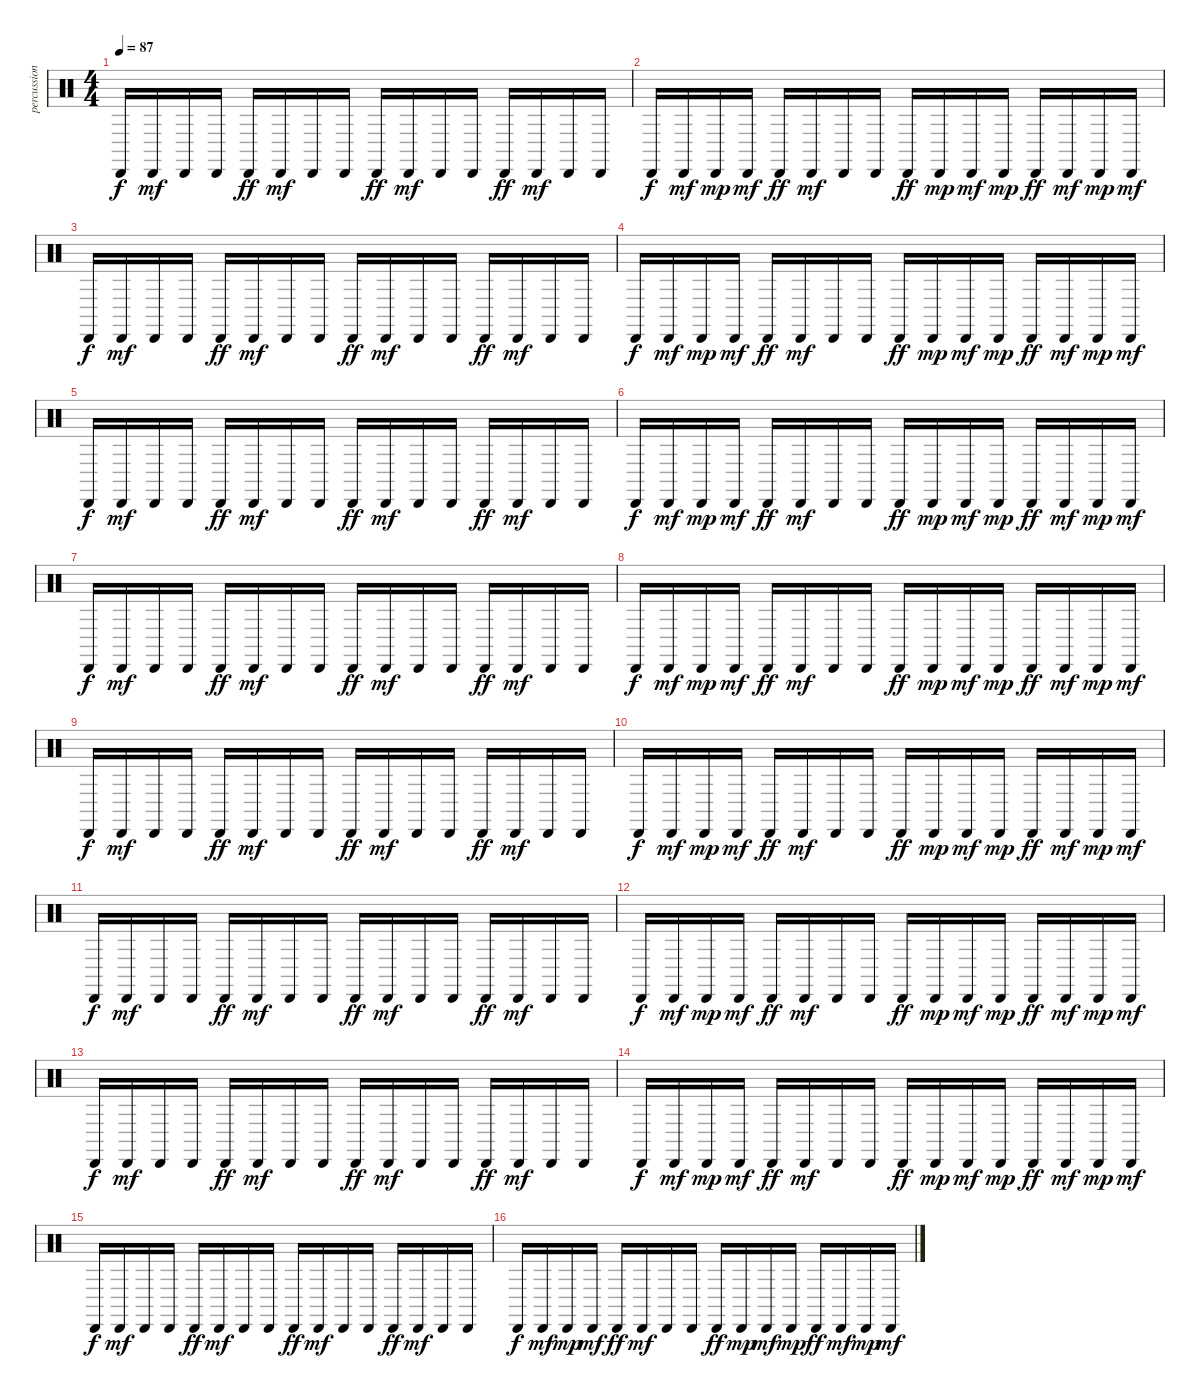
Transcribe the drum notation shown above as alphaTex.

\track ("percussion" "percussion") {instrument percussion}
\staff {score}
\articulation defaults
\ts (4 4)
\tempo 87
\clef neutral
\ks c "Cabasa (hit)".16{dy f} "Cabasa (hit)".16{dy mf} "Cabasa (hit)".16 "Cabasa (hit)".16 "Cabasa (hit)".16{dy ff} "Cabasa (hit)".16{dy mf} "Cabasa (hit)".16 "Cabasa (hit)".16 "Cabasa (hit)".16{dy ff} "Cabasa (hit)".16{dy mf} "Cabasa (hit)".16 "Cabasa (hit)".16 "Cabasa (hit)".16{dy ff} "Cabasa (hit)".16{dy mf} "Cabasa (hit)".16 "Cabasa (hit)".16
|
"Cabasa (hit)".16{dy f} "Cabasa (hit)".16{dy mf} "Cabasa (hit)".16{dy mp} "Cabasa (hit)".16{dy mf} "Cabasa (hit)".16{dy ff} "Cabasa (hit)".16{dy mf} "Cabasa (hit)".16 "Cabasa (hit)".16 "Cabasa (hit)".16{dy ff} "Cabasa (hit)".16{dy mp} "Cabasa (hit)".16{dy mf} "Cabasa (hit)".16{dy mp} "Cabasa (hit)".16{dy ff} "Cabasa (hit)".16{dy mf} "Cabasa (hit)".16{dy mp} "Cabasa (hit)".16{dy mf} |
"Cabasa (hit)".16{dy f} "Cabasa (hit)".16{dy mf} "Cabasa (hit)".16 "Cabasa (hit)".16 "Cabasa (hit)".16{dy ff} "Cabasa (hit)".16{dy mf} "Cabasa (hit)".16 "Cabasa (hit)".16 "Cabasa (hit)".16{dy ff} "Cabasa (hit)".16{dy mf} "Cabasa (hit)".16 "Cabasa (hit)".16 "Cabasa (hit)".16{dy ff} "Cabasa (hit)".16{dy mf} "Cabasa (hit)".16 "Cabasa (hit)".16 |
"Cabasa (hit)".16{dy f} "Cabasa (hit)".16{dy mf} "Cabasa (hit)".16{dy mp} "Cabasa (hit)".16{dy mf} "Cabasa (hit)".16{dy ff} "Cabasa (hit)".16{dy mf} "Cabasa (hit)".16 "Cabasa (hit)".16 "Cabasa (hit)".16{dy ff} "Cabasa (hit)".16{dy mp} "Cabasa (hit)".16{dy mf} "Cabasa (hit)".16{dy mp} "Cabasa (hit)".16{dy ff} "Cabasa (hit)".16{dy mf} "Cabasa (hit)".16{dy mp} "Cabasa (hit)".16{dy mf} |
"Cabasa (hit)".16{dy f} "Cabasa (hit)".16{dy mf} "Cabasa (hit)".16 "Cabasa (hit)".16 "Cabasa (hit)".16{dy ff} "Cabasa (hit)".16{dy mf} "Cabasa (hit)".16 "Cabasa (hit)".16 "Cabasa (hit)".16{dy ff} "Cabasa (hit)".16{dy mf} "Cabasa (hit)".16 "Cabasa (hit)".16 "Cabasa (hit)".16{dy ff} "Cabasa (hit)".16{dy mf} "Cabasa (hit)".16 "Cabasa (hit)".16 |
"Cabasa (hit)".16{dy f} "Cabasa (hit)".16{dy mf} "Cabasa (hit)".16{dy mp} "Cabasa (hit)".16{dy mf} "Cabasa (hit)".16{dy ff} "Cabasa (hit)".16{dy mf} "Cabasa (hit)".16 "Cabasa (hit)".16 "Cabasa (hit)".16{dy ff} "Cabasa (hit)".16{dy mp} "Cabasa (hit)".16{dy mf} "Cabasa (hit)".16{dy mp} "Cabasa (hit)".16{dy ff} "Cabasa (hit)".16{dy mf} "Cabasa (hit)".16{dy mp} "Cabasa (hit)".16{dy mf} |
"Cabasa (hit)".16{dy f} "Cabasa (hit)".16{dy mf} "Cabasa (hit)".16 "Cabasa (hit)".16 "Cabasa (hit)".16{dy ff} "Cabasa (hit)".16{dy mf} "Cabasa (hit)".16 "Cabasa (hit)".16 "Cabasa (hit)".16{dy ff} "Cabasa (hit)".16{dy mf} "Cabasa (hit)".16 "Cabasa (hit)".16 "Cabasa (hit)".16{dy ff} "Cabasa (hit)".16{dy mf} "Cabasa (hit)".16 "Cabasa (hit)".16 |
"Cabasa (hit)".16{dy f} "Cabasa (hit)".16{dy mf} "Cabasa (hit)".16{dy mp} "Cabasa (hit)".16{dy mf} "Cabasa (hit)".16{dy ff} "Cabasa (hit)".16{dy mf} "Cabasa (hit)".16 "Cabasa (hit)".16 "Cabasa (hit)".16{dy ff} "Cabasa (hit)".16{dy mp} "Cabasa (hit)".16{dy mf} "Cabasa (hit)".16{dy mp} "Cabasa (hit)".16{dy ff} "Cabasa (hit)".16{dy mf} "Cabasa (hit)".16{dy mp} "Cabasa (hit)".16{dy mf} |
"Cabasa (hit)".16{dy f} "Cabasa (hit)".16{dy mf} "Cabasa (hit)".16 "Cabasa (hit)".16 "Cabasa (hit)".16{dy ff} "Cabasa (hit)".16{dy mf} "Cabasa (hit)".16 "Cabasa (hit)".16 "Cabasa (hit)".16{dy ff} "Cabasa (hit)".16{dy mf} "Cabasa (hit)".16 "Cabasa (hit)".16 "Cabasa (hit)".16{dy ff} "Cabasa (hit)".16{dy mf} "Cabasa (hit)".16 "Cabasa (hit)".16 |
"Cabasa (hit)".16{dy f} "Cabasa (hit)".16{dy mf} "Cabasa (hit)".16{dy mp} "Cabasa (hit)".16{dy mf} "Cabasa (hit)".16{dy ff} "Cabasa (hit)".16{dy mf} "Cabasa (hit)".16 "Cabasa (hit)".16 "Cabasa (hit)".16{dy ff} "Cabasa (hit)".16{dy mp} "Cabasa (hit)".16{dy mf} "Cabasa (hit)".16{dy mp} "Cabasa (hit)".16{dy ff} "Cabasa (hit)".16{dy mf} "Cabasa (hit)".16{dy mp} "Cabasa (hit)".16{dy mf} |
"Cabasa (hit)".16{dy f} "Cabasa (hit)".16{dy mf} "Cabasa (hit)".16 "Cabasa (hit)".16 "Cabasa (hit)".16{dy ff} "Cabasa (hit)".16{dy mf} "Cabasa (hit)".16 "Cabasa (hit)".16 "Cabasa (hit)".16{dy ff} "Cabasa (hit)".16{dy mf} "Cabasa (hit)".16 "Cabasa (hit)".16 "Cabasa (hit)".16{dy ff} "Cabasa (hit)".16{dy mf} "Cabasa (hit)".16 "Cabasa (hit)".16 |
"Cabasa (hit)".16{dy f} "Cabasa (hit)".16{dy mf} "Cabasa (hit)".16{dy mp} "Cabasa (hit)".16{dy mf} "Cabasa (hit)".16{dy ff} "Cabasa (hit)".16{dy mf} "Cabasa (hit)".16 "Cabasa (hit)".16 "Cabasa (hit)".16{dy ff} "Cabasa (hit)".16{dy mp} "Cabasa (hit)".16{dy mf} "Cabasa (hit)".16{dy mp} "Cabasa (hit)".16{dy ff} "Cabasa (hit)".16{dy mf} "Cabasa (hit)".16{dy mp} "Cabasa (hit)".16{dy mf} |
"Cabasa (hit)".16{dy f} "Cabasa (hit)".16{dy mf} "Cabasa (hit)".16 "Cabasa (hit)".16 "Cabasa (hit)".16{dy ff} "Cabasa (hit)".16{dy mf} "Cabasa (hit)".16 "Cabasa (hit)".16 "Cabasa (hit)".16{dy ff} "Cabasa (hit)".16{dy mf} "Cabasa (hit)".16 "Cabasa (hit)".16 "Cabasa (hit)".16{dy ff} "Cabasa (hit)".16{dy mf} "Cabasa (hit)".16 "Cabasa (hit)".16 |
"Cabasa (hit)".16{dy f} "Cabasa (hit)".16{dy mf} "Cabasa (hit)".16{dy mp} "Cabasa (hit)".16{dy mf} "Cabasa (hit)".16{dy ff} "Cabasa (hit)".16{dy mf} "Cabasa (hit)".16 "Cabasa (hit)".16 "Cabasa (hit)".16{dy ff} "Cabasa (hit)".16{dy mp} "Cabasa (hit)".16{dy mf} "Cabasa (hit)".16{dy mp} "Cabasa (hit)".16{dy ff} "Cabasa (hit)".16{dy mf} "Cabasa (hit)".16{dy mp} "Cabasa (hit)".16{dy mf} |
"Cabasa (hit)".16{dy f} "Cabasa (hit)".16{dy mf} "Cabasa (hit)".16 "Cabasa (hit)".16 "Cabasa (hit)".16{dy ff} "Cabasa (hit)".16{dy mf} "Cabasa (hit)".16 "Cabasa (hit)".16 "Cabasa (hit)".16{dy ff} "Cabasa (hit)".16{dy mf} "Cabasa (hit)".16 "Cabasa (hit)".16 "Cabasa (hit)".16{dy ff} "Cabasa (hit)".16{dy mf} "Cabasa (hit)".16 "Cabasa (hit)".16 |
"Cabasa (hit)".16{dy f} "Cabasa (hit)".16{dy mf} "Cabasa (hit)".16{dy mp} "Cabasa (hit)".16{dy mf} "Cabasa (hit)".16{dy ff} "Cabasa (hit)".16{dy mf} "Cabasa (hit)".16 "Cabasa (hit)".16 "Cabasa (hit)".16{dy ff} "Cabasa (hit)".16{dy mp} "Cabasa (hit)".16{dy mf} "Cabasa (hit)".16{dy mp} "Cabasa (hit)".16{dy ff} "Cabasa (hit)".16{dy mf} "Cabasa (hit)".16{dy mp} "Cabasa (hit)".16{dy mf}
